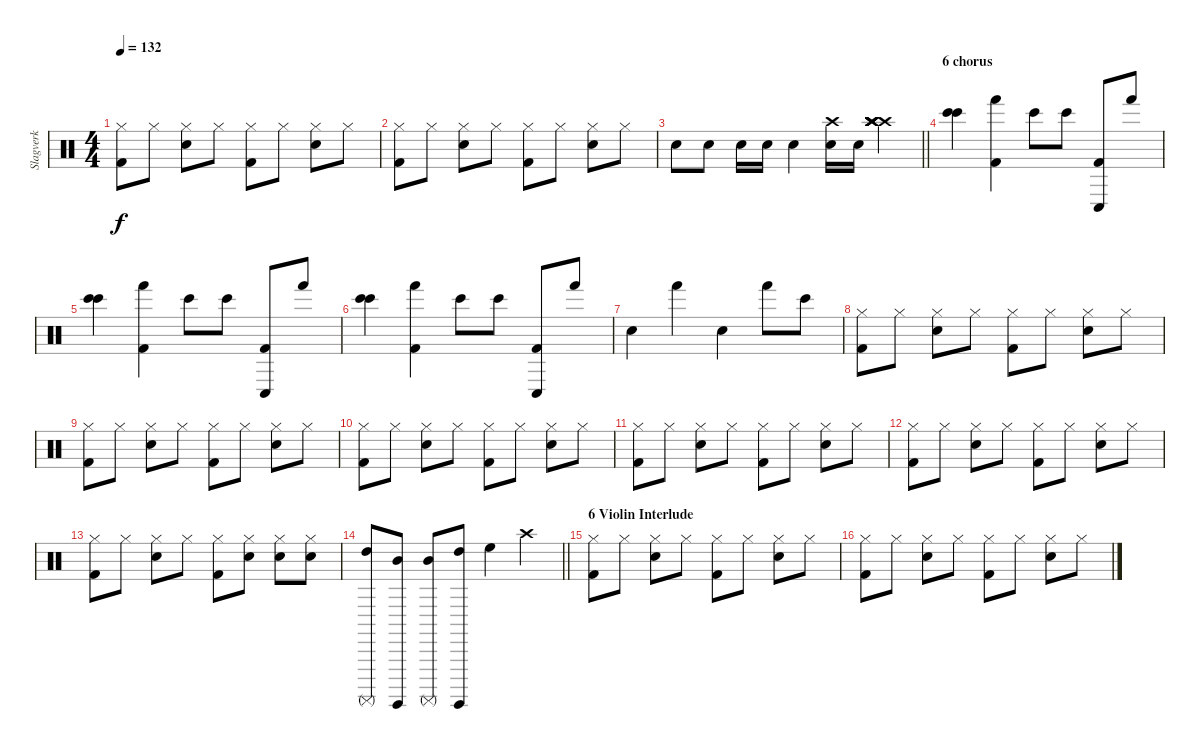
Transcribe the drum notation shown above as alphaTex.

\track ("Slagverk" "Slagverk") {instrument percussion}
\staff {score}
\articulation defaults
\ts (4 4)
\tempo 132
\clef neutral
\ks c
("Kick (hit) 2" "Hi-Hat (closed)").8{dy f} "Hi-Hat (closed)".8 ("Snare (hit) 2" "Hi-Hat (closed)").8 "Hi-Hat (closed)".8 ("Kick (hit) 2" "Hi-Hat (closed)").8 "Hi-Hat (closed)".8 ("Snare (hit) 2" "Hi-Hat (closed)").8 "Hi-Hat (closed)".8 |
("Kick (hit) 2" "Hi-Hat (closed)").8 "Hi-Hat (closed)".8 ("Snare (hit) 2" "Hi-Hat (closed)").8 "Hi-Hat (closed)".8 ("Kick (hit) 2" "Hi-Hat (closed)").8 "Hi-Hat (closed)".8 ("Snare (hit) 2" "Hi-Hat (closed)").8 "Hi-Hat (closed)".8 |
\barLineRight lightlight "Snare (hit) 2".8 "Snare (hit) 2".8 "Snare (hit) 2".16 "Snare (hit) 2".16 "Snare (hit) 2".4
("Snare (hit) 2" "Crash high (hit)").16 "Snare (hit) 2".16 ("Crash high (hit)" "Crash high (hit)" "Crash high (hit)" "Crash high (hit)" "Crash high (hit)" "Crash high (hit)").4 |
\section ("" "6 chorus")
("Bongo High (hit)" "Bongo High (hit)").4 ("Kick (hit) 2" "Hand (hit)").4 "Bongo High (hit)".8 "Bongo High (hit)".8 ("Kick (hit) 2" "Conga low (hit)").8 "Hand (hit)".8 |
("Bongo High (hit)" "Bongo High (hit)").4 ("Kick (hit) 2" "Hand (hit)").4 "Bongo High (hit)".8 "Bongo High (hit)".8 ("Kick (hit) 2" "Conga low (hit)").8 "Hand (hit)".8 |
("Bongo High (hit)" "Bongo High (hit)").4 ("Kick (hit) 2" "Hand (hit)").4 "Bongo High (hit)".8 "Bongo High (hit)".8 ("Kick (hit) 2" "Conga low (hit)").8 "Hand (hit)".8 |
"Snare (hit) 2".4 "Hand (hit)".4 "Snare (hit) 2".4 "Hand (hit)".8 "Bongo High (hit)".8 |
("Kick (hit) 2" "Hi-Hat (closed)").8 "Hi-Hat (closed)".8 ("Snare (hit) 2" "Hi-Hat (closed)").8 "Hi-Hat (closed)".8 ("Kick (hit) 2" "Hi-Hat (closed)").8 "Hi-Hat (closed)".8 ("Snare (hit) 2" "Hi-Hat (closed)").8 "Hi-Hat (closed)".8 |
("Kick (hit) 2" "Hi-Hat (closed)").8 "Hi-Hat (closed)".8 ("Snare (hit) 2" "Hi-Hat (closed)").8 "Hi-Hat (closed)".8 ("Kick (hit) 2" "Hi-Hat (closed)").8 "Hi-Hat (closed)".8 ("Snare (hit) 2" "Hi-Hat (closed)").8 "Hi-Hat (closed)".8 |
("Kick (hit) 2" "Hi-Hat (closed)").8 "Hi-Hat (closed)".8 ("Snare (hit) 2" "Hi-Hat (closed)").8 "Hi-Hat (closed)".8 ("Kick (hit) 2" "Hi-Hat (closed)").8 "Hi-Hat (closed)".8 ("Snare (hit) 2" "Hi-Hat (closed)").8 "Hi-Hat (closed)".8 |
("Kick (hit) 2" "Hi-Hat (closed)").8 "Hi-Hat (closed)".8 ("Snare (hit) 2" "Hi-Hat (closed)").8 "Hi-Hat (closed)".8 ("Kick (hit) 2" "Hi-Hat (closed)").8 "Hi-Hat (closed)".8 ("Snare (hit) 2" "Hi-Hat (closed)").8 "Hi-Hat (closed)".8 |
("Kick (hit) 2" "Hi-Hat (closed)").8 "Hi-Hat (closed)".8 ("Snare (hit) 2" "Hi-Hat (closed)").8 "Hi-Hat (closed)".8 ("Kick (hit) 2" "Hi-Hat (closed)").8 "Hi-Hat (closed)".8 ("Snare (hit) 2" "Hi-Hat (closed)").8 "Hi-Hat (closed)".8 |
("Kick (hit) 2" "Hi-Hat (closed)").8 "Hi-Hat (closed)".8 ("Snare (hit) 2" "Hi-Hat (closed)").8 "Hi-Hat (closed)".8 ("Kick (hit) 2" "Hi-Hat (closed)").8 ("Snare (hit) 2" "Hi-Hat (closed)").8 ("Snare (hit) 2" "Hi-Hat (closed)").8 ("Snare (hit) 2" "Hi-Hat (closed)").8 |
\barLineRight lightlight
("High Tom (hit)" "Surdo (mute)").8 ("Mid Tom (hit)" "Surdo (hit)").8 ("Surdo (mute)" "Mid Tom (hit)").8 ("Surdo (hit)" "High Tom (hit)").8 "High Floor Tom (hit)".4 "Crash high (hit)".4 |
\section ("" "6 Violin Interlude")
("Kick (hit) 2" "Hi-Hat (closed)").8 "Hi-Hat (closed)".8 ("Snare (hit) 2" "Hi-Hat (closed)").8 "Hi-Hat (closed)".8 ("Kick (hit) 2" "Hi-Hat (closed)").8 "Hi-Hat (closed)".8 ("Snare (hit) 2" "Hi-Hat (closed)").8 "Hi-Hat (closed)".8 |
("Kick (hit) 2" "Hi-Hat (closed)").8 "Hi-Hat (closed)".8 ("Snare (hit) 2" "Hi-Hat (closed)").8 "Hi-Hat (closed)".8 ("Kick (hit) 2" "Hi-Hat (closed)").8 "Hi-Hat (closed)".8 ("Snare (hit) 2" "Hi-Hat (closed)").8 "Hi-Hat (closed)".8
